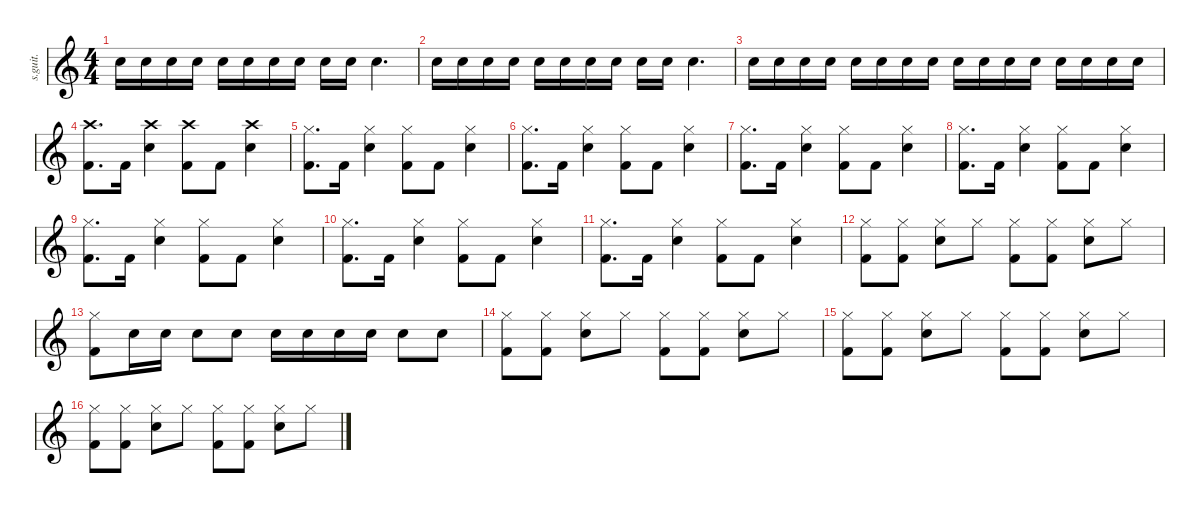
\defaultSystemsLayout 4
\hideDynamics
\bracketExtendMode nobrackets
\track ("" "s.guit.") {instrument percussion}
\staff {score}
\articulation defaults
\ts (4 4)
\tempo (180 hide)
\clef g2
\ks c "Snare (hit) 2".16{dy f} "Snare (hit) 2".16 "Snare (hit) 2".16 "Snare (hit) 2".16 "Snare (hit) 2".16 "Snare (hit) 2".16 "Snare (hit) 2".16 "Snare (hit) 2".16 "Snare (hit) 2".16 "Snare (hit) 2".16 "Snare (hit) 2".4{d}
|
"Snare (hit) 2".16 "Snare (hit) 2".16 "Snare (hit) 2".16 "Snare (hit) 2".16 "Snare (hit) 2".16 "Snare (hit) 2".16 "Snare (hit) 2".16 "Snare (hit) 2".16 "Snare (hit) 2".16 "Snare (hit) 2".16 "Snare (hit) 2".4{d} |
"Snare (hit) 2".16 "Snare (hit) 2".16 "Snare (hit) 2".16 "Snare (hit) 2".16 "Snare (hit) 2".16 "Snare (hit) 2".16 "Snare (hit) 2".16 "Snare (hit) 2".16 "Snare (hit) 2".16 "Snare (hit) 2".16 "Snare (hit) 2".16 "Snare (hit) 2".16 "Snare (hit) 2".16 "Snare (hit) 2".16 "Snare (hit) 2".16 "Snare (hit) 2".16 |
("Kick (hit) 2" "Crash high (hit)").8{d} "Kick (hit) 2".16 ("Snare (hit) 2" "Crash high (hit)").4 ("Kick (hit) 2" "Crash high (hit)").8 "Kick (hit) 2".8 ("Snare (hit) 2" "Crash high (hit)").4 |
("Kick (hit) 2" "Hi-Hat (closed)").8{d} "Kick (hit) 2".16 ("Snare (hit) 2" "Hi-Hat (closed)").4 ("Kick (hit) 2" "Hi-Hat (closed)").8 "Kick (hit) 2".8 ("Snare (hit) 2" "Hi-Hat (closed)").4 |
("Kick (hit) 2" "Hi-Hat (closed)").8{d} "Kick (hit) 2".16 ("Snare (hit) 2" "Hi-Hat (closed)").4 ("Kick (hit) 2" "Hi-Hat (closed)").8 "Kick (hit) 2".8 ("Snare (hit) 2" "Hi-Hat (closed)").4 |
("Kick (hit) 2" "Hi-Hat (closed)").8{d} "Kick (hit) 2".16 ("Snare (hit) 2" "Hi-Hat (closed)").4 ("Kick (hit) 2" "Hi-Hat (closed)").8 "Kick (hit) 2".8 ("Snare (hit) 2" "Hi-Hat (closed)").4 |
("Kick (hit) 2" "Hi-Hat (closed)").8{d} "Kick (hit) 2".16 ("Snare (hit) 2" "Hi-Hat (closed)").4 ("Kick (hit) 2" "Hi-Hat (closed)").8 "Kick (hit) 2".8 ("Snare (hit) 2" "Hi-Hat (closed)").4 |
("Kick (hit) 2" "Hi-Hat (closed)").8{d} "Kick (hit) 2".16 ("Snare (hit) 2" "Hi-Hat (closed)").4 ("Kick (hit) 2" "Hi-Hat (closed)").8 "Kick (hit) 2".8 ("Snare (hit) 2" "Hi-Hat (closed)").4 |
("Kick (hit) 2" "Hi-Hat (closed)").8{d} "Kick (hit) 2".16 ("Snare (hit) 2" "Hi-Hat (closed)").4 ("Kick (hit) 2" "Hi-Hat (closed)").8 "Kick (hit) 2".8 ("Snare (hit) 2" "Hi-Hat (closed)").4 |
("Kick (hit) 2" "Hi-Hat (closed)").8{d} "Kick (hit) 2".16 ("Snare (hit) 2" "Hi-Hat (closed)").4 ("Kick (hit) 2" "Hi-Hat (closed)").8 "Kick (hit) 2".8 ("Snare (hit) 2" "Hi-Hat (closed)").4 |
("Kick (hit) 2" "Hi-Hat (closed)").8 ("Kick (hit) 2" "Hi-Hat (closed)").8 ("Snare (hit) 2" "Hi-Hat (closed)").8 "Hi-Hat (closed)".8 ("Kick (hit) 2" "Hi-Hat (closed)").8 ("Kick (hit) 2" "Hi-Hat (closed)").8 ("Snare (hit) 2" "Hi-Hat (closed)").8 "Hi-Hat (closed)".8 |
("Kick (hit) 2" "Hi-Hat (closed)").8 "Snare (hit) 2".16 "Snare (hit) 2".16 "Snare (hit) 2".8 "Snare (hit) 2".8 "Snare (hit) 2".16 "Snare (hit) 2".16 "Snare (hit) 2".16 "Snare (hit) 2".16 "Snare (hit) 2".8 "Snare (hit) 2".8 |
("Kick (hit) 2" "Hi-Hat (closed)").8 ("Kick (hit) 2" "Hi-Hat (closed)").8 ("Snare (hit) 2" "Hi-Hat (closed)").8 "Hi-Hat (closed)".8 ("Kick (hit) 2" "Hi-Hat (closed)").8 ("Kick (hit) 2" "Hi-Hat (closed)").8 ("Snare (hit) 2" "Hi-Hat (closed)").8 "Hi-Hat (closed)".8 |
("Kick (hit) 2" "Hi-Hat (closed)").8 ("Kick (hit) 2" "Hi-Hat (closed)").8 ("Snare (hit) 2" "Hi-Hat (closed)").8 "Hi-Hat (closed)".8 ("Kick (hit) 2" "Hi-Hat (closed)").8 ("Kick (hit) 2" "Hi-Hat (closed)").8 ("Snare (hit) 2" "Hi-Hat (closed)").8 "Hi-Hat (closed)".8 |
("Kick (hit) 2" "Hi-Hat (closed)").8 ("Kick (hit) 2" "Hi-Hat (closed)").8 ("Snare (hit) 2" "Hi-Hat (closed)").8 "Hi-Hat (closed)".8 ("Kick (hit) 2" "Hi-Hat (closed)").8 ("Kick (hit) 2" "Hi-Hat (closed)").8 ("Snare (hit) 2" "Hi-Hat (closed)").8 "Hi-Hat (closed)".8
